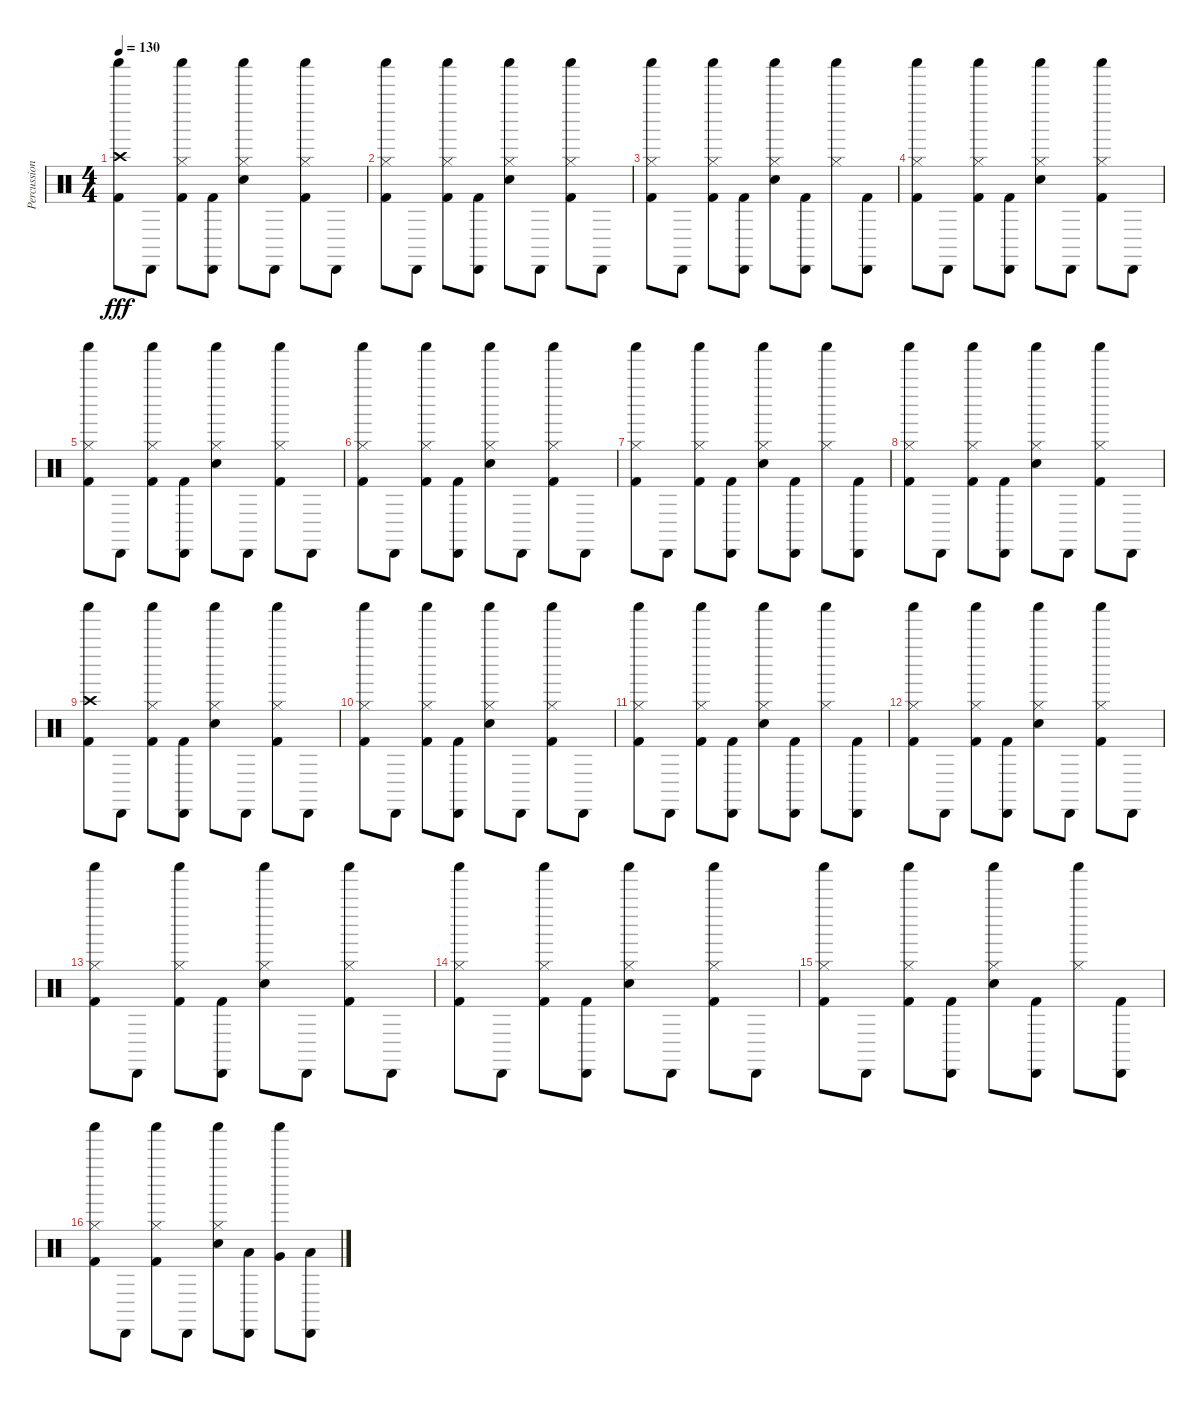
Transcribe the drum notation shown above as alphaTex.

\track ("Percussion" "Percussion") {instrument percussion}
\staff {score}
\articulation defaults
\ts (4 4)
\tempo 130
\clef neutral
\ks c
("Shaker (hit)" "Crash high (hit)" "Kick (hit) 2").8{dy fff} "Cabasa (hit)".8 ("Shaker (hit)" "Hi-Hat (closed)" "Kick (hit) 2").8 ("Cabasa (hit)" "Kick (hit) 2").8 ("Shaker (hit)" "Hi-Hat (closed)" "Snare (hit) 2").8 "Cabasa (hit)".8 ("Shaker (hit)" "Hi-Hat (closed)" "Kick (hit) 2").8 "Cabasa (hit)".8 |
("Shaker (hit)" "Hi-Hat (closed)" "Kick (hit) 2").8 "Cabasa (hit)".8 ("Shaker (hit)" "Hi-Hat (closed)" "Kick (hit) 2").8 ("Cabasa (hit)" "Kick (hit) 2").8 ("Shaker (hit)" "Hi-Hat (closed)" "Snare (hit) 2").8 "Cabasa (hit)".8 ("Shaker (hit)" "Hi-Hat (closed)" "Kick (hit) 2").8 "Cabasa (hit)".8 |
("Shaker (hit)" "Hi-Hat (closed)" "Kick (hit) 2").8 "Cabasa (hit)".8 ("Shaker (hit)" "Hi-Hat (closed)" "Kick (hit) 2").8 ("Cabasa (hit)" "Kick (hit) 2").8 ("Shaker (hit)" "Hi-Hat (closed)" "Snare (hit) 2").8 ("Cabasa (hit)" "Kick (hit) 2").8 ("Shaker (hit)" "Hi-Hat (closed)").8 ("Cabasa (hit)" "Kick (hit) 2").8 |
("Shaker (hit)" "Hi-Hat (closed)" "Kick (hit) 2").8 "Cabasa (hit)".8 ("Shaker (hit)" "Hi-Hat (closed)" "Kick (hit) 2").8 ("Cabasa (hit)" "Kick (hit) 2").8 ("Shaker (hit)" "Hi-Hat (closed)" "Snare (hit) 2").8 "Cabasa (hit)".8 ("Shaker (hit)" "Hi-Hat (closed)" "Kick (hit) 2").8 "Cabasa (hit)".8 |
("Shaker (hit)" "Hi-Hat (closed)" "Kick (hit) 2").8 "Cabasa (hit)".8 ("Shaker (hit)" "Hi-Hat (closed)" "Kick (hit) 2").8 ("Cabasa (hit)" "Kick (hit) 2").8 ("Shaker (hit)" "Hi-Hat (closed)" "Snare (hit) 2").8 "Cabasa (hit)".8 ("Shaker (hit)" "Hi-Hat (closed)" "Kick (hit) 2").8 "Cabasa (hit)".8 |
("Shaker (hit)" "Hi-Hat (closed)" "Kick (hit) 2").8 "Cabasa (hit)".8 ("Shaker (hit)" "Hi-Hat (closed)" "Kick (hit) 2").8 ("Cabasa (hit)" "Kick (hit) 2").8 ("Shaker (hit)" "Hi-Hat (closed)" "Snare (hit) 2").8 "Cabasa (hit)".8 ("Shaker (hit)" "Hi-Hat (closed)" "Kick (hit) 2").8 "Cabasa (hit)".8 |
("Shaker (hit)" "Hi-Hat (closed)" "Kick (hit) 2").8 "Cabasa (hit)".8 ("Shaker (hit)" "Hi-Hat (closed)" "Kick (hit) 2").8 ("Cabasa (hit)" "Kick (hit) 2").8 ("Shaker (hit)" "Hi-Hat (closed)" "Snare (hit) 2").8 ("Cabasa (hit)" "Kick (hit) 2").8 ("Shaker (hit)" "Hi-Hat (closed)").8 ("Cabasa (hit)" "Kick (hit) 2").8 |
("Shaker (hit)" "Hi-Hat (closed)" "Kick (hit) 2").8 "Cabasa (hit)".8 ("Shaker (hit)" "Hi-Hat (closed)" "Kick (hit) 2").8 ("Cabasa (hit)" "Kick (hit) 2").8 ("Shaker (hit)" "Hi-Hat (closed)" "Snare (hit) 2").8 "Cabasa (hit)".8 ("Shaker (hit)" "Hi-Hat (closed)" "Kick (hit) 2").8 "Cabasa (hit)".8 |
("Shaker (hit)" "Crash high (hit)" "Kick (hit) 2").8 "Cabasa (hit)".8 ("Shaker (hit)" "Hi-Hat (closed)" "Kick (hit) 2").8 ("Cabasa (hit)" "Kick (hit) 2").8 ("Shaker (hit)" "Hi-Hat (closed)" "Snare (hit) 2").8 "Cabasa (hit)".8 ("Shaker (hit)" "Hi-Hat (closed)" "Kick (hit) 2").8 "Cabasa (hit)".8 |
("Shaker (hit)" "Hi-Hat (closed)" "Kick (hit) 2").8 "Cabasa (hit)".8 ("Shaker (hit)" "Hi-Hat (closed)" "Kick (hit) 2").8 ("Cabasa (hit)" "Kick (hit) 2").8 ("Shaker (hit)" "Hi-Hat (closed)" "Snare (hit) 2").8 "Cabasa (hit)".8 ("Shaker (hit)" "Hi-Hat (closed)" "Kick (hit) 2").8 "Cabasa (hit)".8 |
("Shaker (hit)" "Hi-Hat (closed)" "Kick (hit) 2").8 "Cabasa (hit)".8 ("Shaker (hit)" "Hi-Hat (closed)" "Kick (hit) 2").8 ("Cabasa (hit)" "Kick (hit) 2").8 ("Shaker (hit)" "Hi-Hat (closed)" "Snare (hit) 2").8 ("Cabasa (hit)" "Kick (hit) 2").8 ("Shaker (hit)" "Hi-Hat (closed)").8 ("Cabasa (hit)" "Kick (hit) 2").8 |
("Shaker (hit)" "Hi-Hat (closed)" "Kick (hit) 2").8 "Cabasa (hit)".8 ("Shaker (hit)" "Hi-Hat (closed)" "Kick (hit) 2").8 ("Cabasa (hit)" "Kick (hit) 2").8 ("Shaker (hit)" "Hi-Hat (closed)" "Snare (hit) 2").8 "Cabasa (hit)".8 ("Shaker (hit)" "Hi-Hat (closed)" "Kick (hit) 2").8 "Cabasa (hit)".8 |
("Shaker (hit)" "Hi-Hat (closed)" "Kick (hit) 2").8 "Cabasa (hit)".8 ("Shaker (hit)" "Hi-Hat (closed)" "Kick (hit) 2").8 ("Cabasa (hit)" "Kick (hit) 2").8 ("Shaker (hit)" "Hi-Hat (closed)" "Snare (hit) 2").8 "Cabasa (hit)".8 ("Shaker (hit)" "Hi-Hat (closed)" "Kick (hit) 2").8 "Cabasa (hit)".8 |
("Shaker (hit)" "Hi-Hat (closed)" "Kick (hit) 2").8 "Cabasa (hit)".8 ("Shaker (hit)" "Hi-Hat (closed)" "Kick (hit) 2").8 ("Cabasa (hit)" "Kick (hit) 2").8 ("Shaker (hit)" "Hi-Hat (closed)" "Snare (hit) 2").8 "Cabasa (hit)".8 ("Shaker (hit)" "Hi-Hat (closed)" "Kick (hit) 2").8 "Cabasa (hit)".8 |
("Shaker (hit)" "Hi-Hat (closed)" "Kick (hit) 2").8 "Cabasa (hit)".8 ("Shaker (hit)" "Hi-Hat (closed)" "Kick (hit) 2").8 ("Cabasa (hit)" "Kick (hit) 2").8 ("Shaker (hit)" "Hi-Hat (closed)" "Snare (hit) 2").8 ("Cabasa (hit)" "Kick (hit) 2").8 ("Shaker (hit)" "Hi-Hat (closed)").8 ("Cabasa (hit)" "Kick (hit) 2").8 |
("Shaker (hit)" "Hi-Hat (closed)" "Kick (hit) 2").8 "Cabasa (hit)".8 ("Shaker (hit)" "Hi-Hat (closed)" "Kick (hit) 2").8 "Cabasa (hit)".8 ("Shaker (hit)" "Hi-Hat (closed)" "Snare (hit) 2").8 ("Cabasa (hit)" "Low Tom (hit)").8 ("Shaker (hit)" "Very Low Tom (hit)").8 ("Cabasa (hit)" "Low Floor Tom (hit)").8
